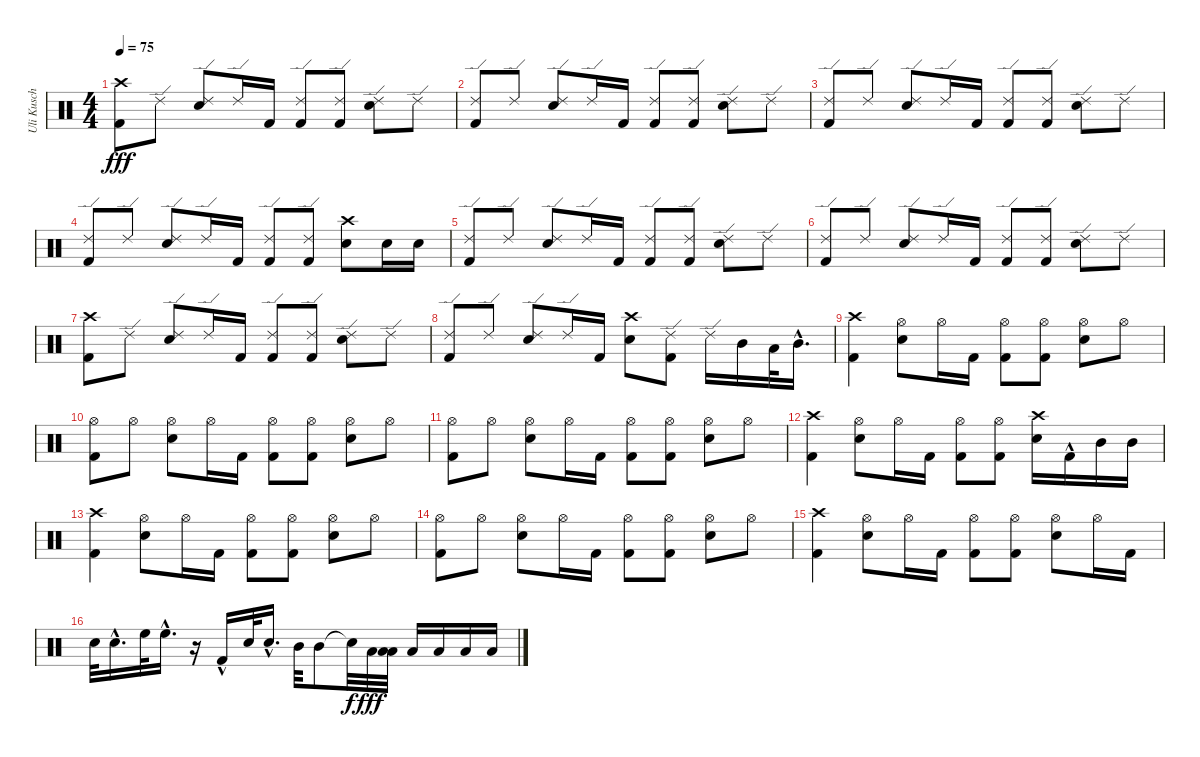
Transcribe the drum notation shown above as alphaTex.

\track ("Uli Kusch" "Uli Kusch") {instrument percussion}
\staff {score}
\articulation defaults
\ts (4 4)
\tempo 75
\clef neutral
\ks c
("Kick (hit) 2" "Crash high (hit)").8{dy fff} "Ride (edge) 2".8 ("Electric Snare (hit)" "Ride (edge) 2").8 "Ride (edge) 2".16 "Kick (hit) 2".16 ("Kick (hit) 2" "Ride (edge) 2").8 ("Kick (hit) 2" "Ride (edge) 2").8 ("Electric Snare (hit)" "Ride (edge) 2").8 "Ride (edge) 2".8 |
("Kick (hit) 2" "Ride (edge) 2").8 "Ride (edge) 2".8 ("Electric Snare (hit)" "Ride (edge) 2").8 "Ride (edge) 2".16 "Kick (hit) 2".16 ("Kick (hit) 2" "Ride (edge) 2").8 ("Kick (hit) 2" "Ride (edge) 2").8 ("Electric Snare (hit)" "Ride (edge) 2").8 "Ride (edge) 2".8 |
("Kick (hit) 2" "Ride (edge) 2").8 "Ride (edge) 2".8 ("Electric Snare (hit)" "Ride (edge) 2").8 "Ride (edge) 2".16 "Kick (hit) 2".16 ("Kick (hit) 2" "Ride (edge) 2").8 ("Kick (hit) 2" "Ride (edge) 2").8 ("Electric Snare (hit)" "Ride (edge) 2").8 "Ride (edge) 2".8 |
("Kick (hit) 2" "Ride (edge) 2").8 "Ride (edge) 2".8 ("Electric Snare (hit)" "Ride (edge) 2").8 "Ride (edge) 2".16 "Kick (hit) 2".16 ("Kick (hit) 2" "Ride (edge) 2").8 ("Kick (hit) 2" "Ride (edge) 2").8 ("Crash high (hit)" "Electric Snare (hit)").8 "Electric Snare (hit)".16 "Electric Snare (hit)".16 |
("Kick (hit) 2" "Ride (edge) 2").8 "Ride (edge) 2".8 ("Electric Snare (hit)" "Ride (edge) 2").8 "Ride (edge) 2".16 "Kick (hit) 2".16 ("Kick (hit) 2" "Ride (edge) 2").8 ("Kick (hit) 2" "Ride (edge) 2").8 ("Electric Snare (hit)" "Ride (edge) 2").8 "Ride (edge) 2".8 |
("Kick (hit) 2" "Ride (edge) 2").8 "Ride (edge) 2".8 ("Electric Snare (hit)" "Ride (edge) 2").8 "Ride (edge) 2".16 "Kick (hit) 2".16 ("Kick (hit) 2" "Ride (edge) 2").8 ("Kick (hit) 2" "Ride (edge) 2").8 ("Electric Snare (hit)" "Ride (edge) 2").8 "Ride (edge) 2".8 |
("Kick (hit) 2" "Crash high (hit)").8 "Ride (edge) 2".8 ("Electric Snare (hit)" "Ride (edge) 2").8 "Ride (edge) 2".16 "Kick (hit) 2".16 ("Kick (hit) 2" "Ride (edge) 2").8 ("Kick (hit) 2" "Ride (edge) 2").8 ("Electric Snare (hit)" "Ride (edge) 2").8 "Ride (edge) 2".8 |
("Kick (hit) 2" "Ride (edge) 2").8 "Ride (edge) 2".8 ("Electric Snare (hit)" "Ride (edge) 2").8 "Ride (edge) 2".16 "Kick (hit) 2".16 ("Electric Snare (hit)" "Crash high (hit)").8 ("Kick (hit) 2" "Ride (edge) 2").8 "Ride (edge) 2".16 "Mid Tom (hit)".16 "Low Tom (hit)".32 "Mid Tom (hit)"{hac}.16{d} |
("Kick (hit) 2" "Crash high (hit)").4 ("Electric Snare (hit)" "Hi-Hat (open)").8 "Hi-Hat (open)".16 "Kick (hit) 2".16 ("Kick (hit) 2" "Hi-Hat (open)").8 ("Kick (hit) 2" "Hi-Hat (open)").8 ("Electric Snare (hit)" "Hi-Hat (open)").8 "Hi-Hat (open)".8 |
("Kick (hit) 2" "Hi-Hat (open)").8 "Hi-Hat (open)".8 ("Electric Snare (hit)" "Hi-Hat (open)").8 "Hi-Hat (open)".16 "Kick (hit) 2".16 ("Kick (hit) 2" "Hi-Hat (open)").8 ("Kick (hit) 2" "Hi-Hat (open)").8 ("Electric Snare (hit)" "Hi-Hat (open)").8 "Hi-Hat (open)".8 |
("Kick (hit) 2" "Hi-Hat (open)").8 "Hi-Hat (open)".8 ("Electric Snare (hit)" "Hi-Hat (open)").8 "Hi-Hat (open)".16 "Kick (hit) 2".16 ("Kick (hit) 2" "Hi-Hat (open)").8 ("Kick (hit) 2" "Hi-Hat (open)").8 ("Electric Snare (hit)" "Hi-Hat (open)").8 "Hi-Hat (open)".8 |
("Kick (hit) 2" "Crash high (hit)").4 ("Electric Snare (hit)" "Hi-Hat (open)").8 "Hi-Hat (open)".16 "Kick (hit) 2".16 ("Kick (hit) 2" "Hi-Hat (open)").8 ("Kick (hit) 2" "Hi-Hat (open)").8 ("Crash high (hit)" "Electric Snare (hit)").16 "Kick (hit) 2"{hac}.16 "Mid Tom (hit)".16 "Mid Tom (hit)".16 |
("Kick (hit) 2" "Crash high (hit)").4 ("Electric Snare (hit)" "Hi-Hat (open)").8 "Hi-Hat (open)".16 "Kick (hit) 2".16 ("Kick (hit) 2" "Hi-Hat (open)").8 ("Kick (hit) 2" "Hi-Hat (open)").8 ("Electric Snare (hit)" "Hi-Hat (open)").8 "Hi-Hat (open)".8 |
("Kick (hit) 2" "Hi-Hat (open)").8 "Hi-Hat (open)".8 ("Electric Snare (hit)" "Hi-Hat (open)").8 "Hi-Hat (open)".16 "Kick (hit) 2".16 ("Kick (hit) 2" "Hi-Hat (open)").8 ("Kick (hit) 2" "Hi-Hat (open)").8 ("Electric Snare (hit)" "Hi-Hat (open)").8 "Hi-Hat (open)".8 |
("Kick (hit) 2" "Crash high (hit)").4 ("Electric Snare (hit)" "Hi-Hat (open)").8 "Hi-Hat (open)".16 "Kick (hit) 2".16 ("Kick (hit) 2" "Hi-Hat (open)").8 ("Kick (hit) 2" "Hi-Hat (open)").8 ("Electric Snare (hit)" "Hi-Hat (open)").8 "Hi-Hat (open)".16 "Kick (hit) 2".16 |
"Electric Snare (hit)".32 "Electric Snare (hit)"{hac}.16{d} "High Floor Tom (hit)".32 "High Floor Tom (hit)"{hac}.16{d} r.16 "Kick (hit) 2"{hac}.16 "Electric Snare (hit)".32 "Electric Snare (hit)"{hac}.16{d} "Mid Tom (hit)".32 "Mid Tom (hit)".8 "Snare (hit)"{t}.32{dy f} "Low Tom (hit)".32{dy fff} ("Low Tom (hit)" "Low Floor Tom (hit)").32 "Low Tom (hit)".16 "Low Tom (hit)".16 "Low Floor Tom (hit)".16 "Low Floor Tom (hit)".16
